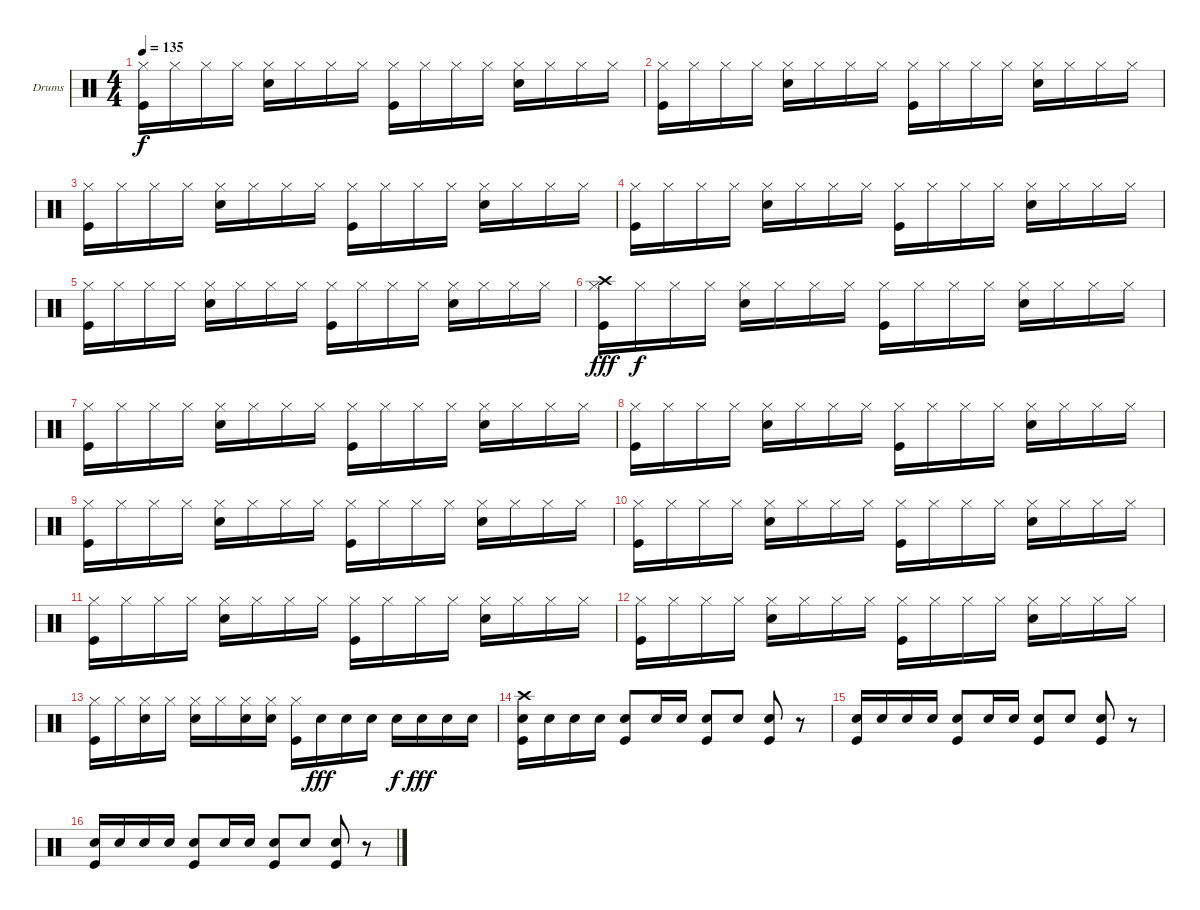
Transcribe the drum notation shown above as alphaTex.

\bracketExtendMode groupsimilarinstruments
\firstSystemTrackNameOrientation horizontal
\otherSystemsTrackNameOrientation horizontal
\track ("Ударные" "Drums") {instrument percussion}
\staff {score}
\articulation defaults
\ts (4 4)
\tempo 135
\clef neutral
\ks c
("Hi-Hat (closed)" "Kick (hit)").16{dy f} "Hi-Hat (closed)".16 "Hi-Hat (closed)".16 "Hi-Hat (closed)".16 ("Hi-Hat (closed)" "Snare (hit) 2").16 "Hi-Hat (closed)".16 "Hi-Hat (closed)".16 "Hi-Hat (closed)".16 ("Hi-Hat (closed)" "Kick (hit)").16 "Hi-Hat (closed)".16 "Hi-Hat (closed)".16 "Hi-Hat (closed)".16 ("Hi-Hat (closed)" "Snare (hit) 2").16 "Hi-Hat (closed)".16 "Hi-Hat (closed)".16 "Hi-Hat (closed)".16 |
("Hi-Hat (closed)" "Kick (hit)").16 "Hi-Hat (closed)".16 "Hi-Hat (closed)".16 "Hi-Hat (closed)".16 ("Hi-Hat (closed)" "Snare (hit) 2").16 "Hi-Hat (closed)".16 "Hi-Hat (closed)".16 "Hi-Hat (closed)".16 ("Hi-Hat (closed)" "Kick (hit)").16 "Hi-Hat (closed)".16 "Hi-Hat (closed)".16 "Hi-Hat (closed)".16 ("Hi-Hat (closed)" "Snare (hit) 2").16 "Hi-Hat (closed)".16 "Hi-Hat (closed)".16 "Hi-Hat (closed)".16 |
("Hi-Hat (closed)" "Kick (hit)").16 "Hi-Hat (closed)".16 "Hi-Hat (closed)".16 "Hi-Hat (closed)".16 ("Hi-Hat (closed)" "Snare (hit) 2").16 "Hi-Hat (closed)".16 "Hi-Hat (closed)".16 "Hi-Hat (closed)".16 ("Hi-Hat (closed)" "Kick (hit)").16 "Hi-Hat (closed)".16 "Hi-Hat (closed)".16 "Hi-Hat (closed)".16 ("Hi-Hat (closed)" "Snare (hit) 2").16 "Hi-Hat (closed)".16 "Hi-Hat (closed)".16 "Hi-Hat (closed)".16 |
("Hi-Hat (closed)" "Kick (hit)").16 "Hi-Hat (closed)".16 "Hi-Hat (closed)".16 "Hi-Hat (closed)".16 ("Hi-Hat (closed)" "Snare (hit) 2").16 "Hi-Hat (closed)".16 "Hi-Hat (closed)".16 "Hi-Hat (closed)".16 ("Hi-Hat (closed)" "Kick (hit)").16 "Hi-Hat (closed)".16 "Hi-Hat (closed)".16 "Hi-Hat (closed)".16 ("Hi-Hat (closed)" "Snare (hit) 2").16 "Hi-Hat (closed)".16 "Hi-Hat (closed)".16 "Hi-Hat (closed)".16 |
("Hi-Hat (closed)" "Kick (hit)").16 "Hi-Hat (closed)".16 "Hi-Hat (closed)".16 "Hi-Hat (closed)".16 ("Hi-Hat (closed)" "Snare (hit) 2").16 "Hi-Hat (closed)".16 "Hi-Hat (closed)".16 "Hi-Hat (closed)".16 ("Hi-Hat (closed)" "Kick (hit)").16 "Hi-Hat (closed)".16 "Hi-Hat (closed)".16 "Hi-Hat (closed)".16 ("Hi-Hat (closed)" "Snare (hit) 2").16 "Hi-Hat (closed)".16 "Hi-Hat (closed)".16 "Hi-Hat (closed)".16 |
("Crash high (hit)" "Hi-Hat (closed)" "Kick (hit)").16{dy fff} "Hi-Hat (closed)".16{dy f} "Hi-Hat (closed)".16 "Hi-Hat (closed)".16 ("Hi-Hat (closed)" "Snare (hit) 2").16 "Hi-Hat (closed)".16 "Hi-Hat (closed)".16 "Hi-Hat (closed)".16 ("Hi-Hat (closed)" "Kick (hit)").16 "Hi-Hat (closed)".16 "Hi-Hat (closed)".16 "Hi-Hat (closed)".16 ("Hi-Hat (closed)" "Snare (hit) 2").16 "Hi-Hat (closed)".16 "Hi-Hat (closed)".16 "Hi-Hat (closed)".16 |
("Hi-Hat (closed)" "Kick (hit)").16 "Hi-Hat (closed)".16 "Hi-Hat (closed)".16 "Hi-Hat (closed)".16 ("Hi-Hat (closed)" "Snare (hit) 2").16 "Hi-Hat (closed)".16 "Hi-Hat (closed)".16 "Hi-Hat (closed)".16 ("Hi-Hat (closed)" "Kick (hit)").16 "Hi-Hat (closed)".16 "Hi-Hat (closed)".16 "Hi-Hat (closed)".16 ("Hi-Hat (closed)" "Snare (hit) 2").16 "Hi-Hat (closed)".16 "Hi-Hat (closed)".16 "Hi-Hat (closed)".16 |
("Hi-Hat (closed)" "Kick (hit)").16 "Hi-Hat (closed)".16 "Hi-Hat (closed)".16 "Hi-Hat (closed)".16 ("Hi-Hat (closed)" "Snare (hit) 2").16 "Hi-Hat (closed)".16 "Hi-Hat (closed)".16 "Hi-Hat (closed)".16 ("Hi-Hat (closed)" "Kick (hit)").16 "Hi-Hat (closed)".16 "Hi-Hat (closed)".16 "Hi-Hat (closed)".16 ("Hi-Hat (closed)" "Snare (hit) 2").16 "Hi-Hat (closed)".16 "Hi-Hat (closed)".16 "Hi-Hat (closed)".16 |
("Hi-Hat (closed)" "Kick (hit)").16 "Hi-Hat (closed)".16 "Hi-Hat (closed)".16 "Hi-Hat (closed)".16 ("Hi-Hat (closed)" "Snare (hit) 2").16 "Hi-Hat (closed)".16 "Hi-Hat (closed)".16 "Hi-Hat (closed)".16 ("Hi-Hat (closed)" "Kick (hit)").16 "Hi-Hat (closed)".16 "Hi-Hat (closed)".16 "Hi-Hat (closed)".16 ("Hi-Hat (closed)" "Snare (hit) 2").16 "Hi-Hat (closed)".16 "Hi-Hat (closed)".16 "Hi-Hat (closed)".16 |
("Hi-Hat (closed)" "Kick (hit)").16 "Hi-Hat (closed)".16 "Hi-Hat (closed)".16 "Hi-Hat (closed)".16 ("Hi-Hat (closed)" "Snare (hit) 2").16 "Hi-Hat (closed)".16 "Hi-Hat (closed)".16 "Hi-Hat (closed)".16 ("Hi-Hat (closed)" "Kick (hit)").16 "Hi-Hat (closed)".16 "Hi-Hat (closed)".16 "Hi-Hat (closed)".16 ("Hi-Hat (closed)" "Snare (hit) 2").16 "Hi-Hat (closed)".16 "Hi-Hat (closed)".16 "Hi-Hat (closed)".16 |
("Hi-Hat (closed)" "Kick (hit)").16 "Hi-Hat (closed)".16 "Hi-Hat (closed)".16 "Hi-Hat (closed)".16 ("Hi-Hat (closed)" "Snare (hit) 2").16 "Hi-Hat (closed)".16 "Hi-Hat (closed)".16 "Hi-Hat (closed)".16 ("Hi-Hat (closed)" "Kick (hit)").16 "Hi-Hat (closed)".16 "Hi-Hat (closed)".16 "Hi-Hat (closed)".16 ("Hi-Hat (closed)" "Snare (hit) 2").16 "Hi-Hat (closed)".16 "Hi-Hat (closed)".16 "Hi-Hat (closed)".16 |
("Hi-Hat (closed)" "Kick (hit)").16 "Hi-Hat (closed)".16 "Hi-Hat (closed)".16 "Hi-Hat (closed)".16 ("Hi-Hat (closed)" "Snare (hit) 2").16 "Hi-Hat (closed)".16 "Hi-Hat (closed)".16 "Hi-Hat (closed)".16 ("Hi-Hat (closed)" "Kick (hit)").16 "Hi-Hat (closed)".16 "Hi-Hat (closed)".16 "Hi-Hat (closed)".16 ("Hi-Hat (closed)" "Snare (hit) 2").16 "Hi-Hat (closed)".16 "Hi-Hat (closed)".16 "Hi-Hat (closed)".16 |
("Hi-Hat (closed)" "Kick (hit)").16 "Hi-Hat (closed)".16 ("Hi-Hat (closed)" "Snare (hit) 2").16 "Hi-Hat (closed)".16 ("Hi-Hat (closed)" "Snare (hit) 2").16 "Hi-Hat (closed)".16 ("Hi-Hat (closed)" "Snare (hit) 2").16 ("Hi-Hat (closed)" "Snare (hit) 2").16 ("Hi-Hat (closed)" "Kick (hit)").16 "Snare (hit) 2".16{dy fff} "Snare (hit) 2".16 "Snare (hit) 2".16 "Snare (hit) 2".16{dy f} "Snare (hit) 2".16{dy fff} "Snare (hit) 2".16 "Snare (hit) 2".16 |
("Crash high (hit)" "Snare (hit) 2" "Kick (hit)").16 "Snare (hit) 2".16 "Snare (hit) 2".16 "Snare (hit) 2".16 ("Snare (hit) 2" "Kick (hit)").8 "Snare (hit) 2".16 "Snare (hit) 2".16 ("Snare (hit) 2" "Kick (hit)").8 "Snare (hit) 2".8 ("Snare (hit) 2" "Kick (hit)").8 r.8 |
("Snare (hit) 2" "Kick (hit)").16 "Snare (hit) 2".16 "Snare (hit) 2".16 "Snare (hit) 2".16 ("Snare (hit) 2" "Kick (hit)").8 "Snare (hit) 2".16 "Snare (hit) 2".16 ("Snare (hit) 2" "Kick (hit)").8 "Snare (hit) 2".8 ("Snare (hit) 2" "Kick (hit)").8 r.8 |
("Snare (hit) 2" "Kick (hit)").16 "Snare (hit) 2".16 "Snare (hit) 2".16 "Snare (hit) 2".16 ("Snare (hit) 2" "Kick (hit)").8 "Snare (hit) 2".16 "Snare (hit) 2".16 ("Snare (hit) 2" "Kick (hit)").8 "Snare (hit) 2".8 ("Snare (hit) 2" "Kick (hit)").8 r.8
